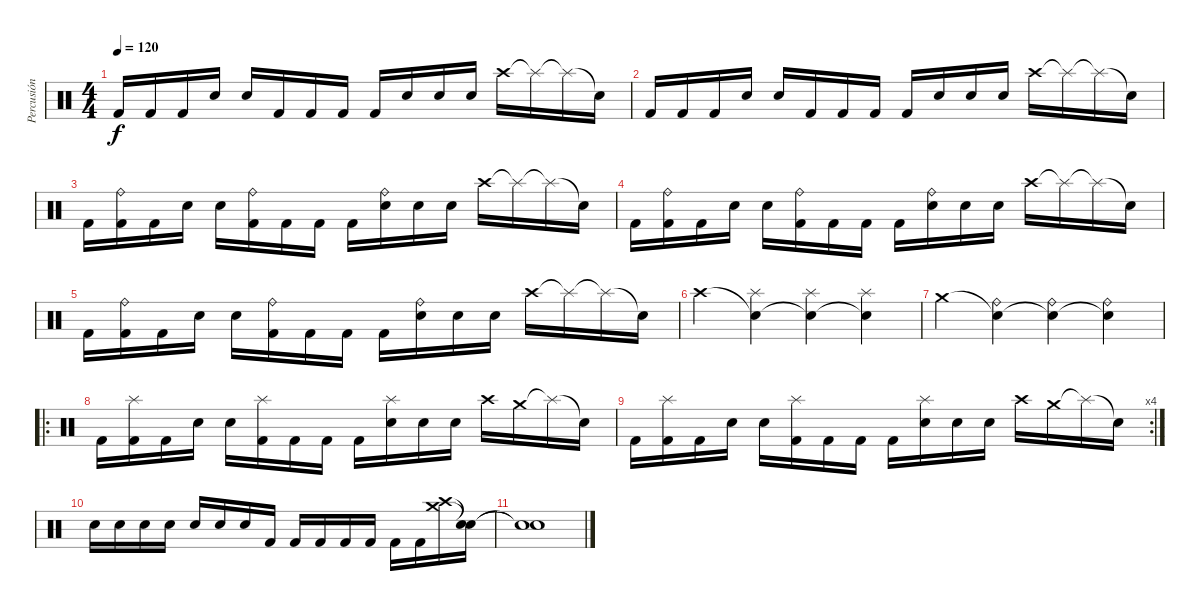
\track ("Percusión" "Percusión") {instrument percussion}
\staff {score}
\articulation defaults
\ts (4 4)
\tempo 120
\clef neutral
\ks c "Kick (hit) 2".16{dy f} "Kick (hit) 2".16 "Kick (hit) 2".16 "Electric Snare (hit)".16 "Electric Snare (hit)".16 "Kick (hit) 2".16 "Kick (hit) 2".16 "Kick (hit) 2".16 "Kick (hit) 2".16 "Electric Snare (hit)".16 "Electric Snare (hit)".16 "Electric Snare (hit)".16 "Crash high (hit)".16 "Splash (hit)"{t}.16 "Splash (hit)"{t}.16 "Snare (hit)"{t}.16
|
"Kick (hit) 2".16 "Kick (hit) 2".16 "Kick (hit) 2".16 "Electric Snare (hit)".16 "Electric Snare (hit)".16 "Kick (hit) 2".16 "Kick (hit) 2".16 "Kick (hit) 2".16 "Kick (hit) 2".16 "Electric Snare (hit)".16 "Electric Snare (hit)".16 "Electric Snare (hit)".16 "Crash high (hit)".16 "Splash (hit)"{t}.16 "Splash (hit)"{t}.16 "Snare (hit)"{t}.16 |
"Kick (hit) 2".16 ("Ride (bell)" "Kick (hit) 2").16 "Kick (hit) 2".16 "Electric Snare (hit)".16 "Electric Snare (hit)".16 ("Ride (bell)" "Kick (hit) 2").16 "Kick (hit) 2".16 "Kick (hit) 2".16 "Kick (hit) 2".16 ("Ride (bell)" "Electric Snare (hit)").16 "Electric Snare (hit)".16 "Electric Snare (hit)".16 "Crash high (hit)".16 "Splash (hit)"{t}.16 "Splash (hit)"{t}.16 "Snare (hit)"{t}.16 |
"Kick (hit) 2".16 ("Ride (bell)" "Kick (hit) 2").16 "Kick (hit) 2".16 "Electric Snare (hit)".16 "Electric Snare (hit)".16 ("Ride (bell)" "Kick (hit) 2").16 "Kick (hit) 2".16 "Kick (hit) 2".16 "Kick (hit) 2".16 ("Ride (bell)" "Electric Snare (hit)").16 "Electric Snare (hit)".16 "Electric Snare (hit)".16 "Crash high (hit)".16 "Splash (hit)"{t}.16 "Splash (hit)"{t}.16 "Snare (hit)"{t}.16 |
"Kick (hit) 2".16 ("Ride (bell)" "Kick (hit) 2").16 "Kick (hit) 2".16 "Electric Snare (hit)".16 "Electric Snare (hit)".16 ("Ride (bell)" "Kick (hit) 2").16 "Kick (hit) 2".16 "Kick (hit) 2".16 "Kick (hit) 2".16 ("Ride (bell)" "Electric Snare (hit)").16 "Electric Snare (hit)".16 "Electric Snare (hit)".16 "Crash high (hit)".16 "Splash (hit)"{t}.16 "Splash (hit)"{t}.16 "Snare (hit)"{t}.16 |
"Crash high (hit)".4 ("Snare (hit)"{t} "Splash (hit)").4 ("Snare (hit)"{t} "Splash (hit)").4 ("Snare (hit)"{t} "Splash (hit)").4 |
"Crash medium (hit)".4 ("Snare (hit)"{t} "Ride (bell)").4 ("Snare (hit)"{t} "Ride (bell)").4 ("Snare (hit)"{t} "Ride (bell)").4 |
\ro "Kick (hit) 2".16
("Splash (hit)" "Kick (hit) 2").16 "Kick (hit) 2".16 "Electric Snare (hit)".16 "Electric Snare (hit)".16 ("Splash (hit)" "Kick (hit) 2").16 "Kick (hit) 2".16 "Kick (hit) 2".16 "Kick (hit) 2".16 ("Splash (hit)" "Electric Snare (hit)").16 "Electric Snare (hit)".16 "Electric Snare (hit)".16 "Crash high (hit)".16 "Crash medium (hit)".16 "Splash (hit)"{t}.16 "Snare (hit)"{t}.16 |
\rc 4 "Kick (hit) 2".16
("Splash (hit)" "Kick (hit) 2").16 "Kick (hit) 2".16 "Electric Snare (hit)".16 "Electric Snare (hit)".16 ("Splash (hit)" "Kick (hit) 2").16 "Kick (hit) 2".16 "Kick (hit) 2".16 "Kick (hit) 2".16 ("Splash (hit)" "Electric Snare (hit)").16 "Electric Snare (hit)".16 "Electric Snare (hit)".16 "Crash high (hit)".16 "Crash medium (hit)".16 "Splash (hit)"{t}.16 "Snare (hit)"{t}.16 |
"Electric Snare (hit)".16 "Electric Snare (hit)".16 "Electric Snare (hit)".16 "Electric Snare (hit)".16 "Electric Snare (hit)".16 "Electric Snare (hit)".16 "Electric Snare (hit)".16 "Kick (hit) 2".16 "Kick (hit) 2".16 "Kick (hit) 2".16 "Kick (hit) 2".16 "Kick (hit) 2".16 "Kick (hit) 2".16 "Kick (hit) 2".16 ("Crash medium (hit)" "Crash high (hit)").16 ("Snare (hit)"{t} "Snare (hit)"{t}).16 |
("Snare (hit)"{t} "Snare (hit)"{t}).1
